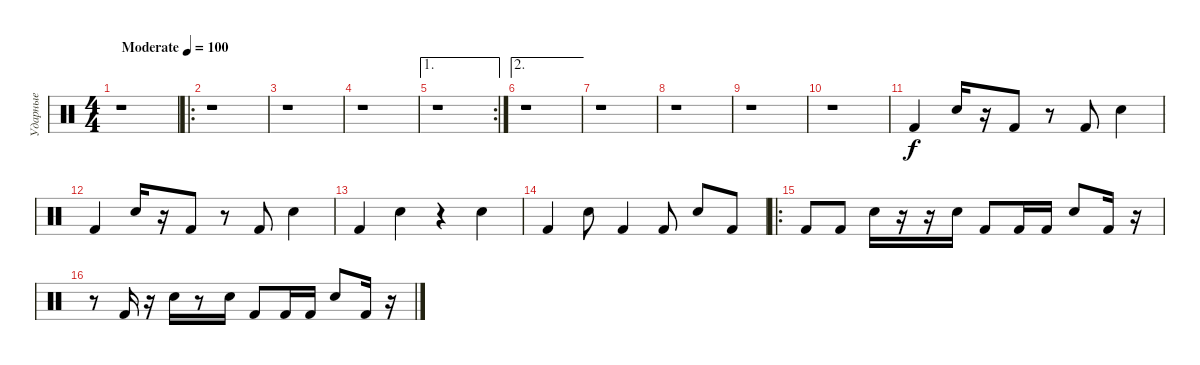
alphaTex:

\track ("Ударные" "Ударные") {instrument percussion}
\staff {score}
\articulation defaults
\ts (4 4)
\tempo (100 "Moderate")
\clef neutral
\ks c
r.1{dy f} |
\ro
r.1 |
r.1 |
r.1 |
\ae 1
\rc 2
r.1 |
\ae 2
r.1 |
r.1 |
r.1 |
r.1 |
r.1 |
"Kick (hit) 2".4 "Snare (hit) 2".16 r.16 "Kick (hit) 2".8 r.8 "Kick (hit) 2".8 "Snare (hit) 2".4 |
"Kick (hit) 2".4 "Snare (hit) 2".16 r.16 "Kick (hit) 2".8 r.8 "Kick (hit) 2".8 "Snare (hit) 2".4 |
"Kick (hit) 2".4 "Snare (hit) 2".4 r.4 "Snare (hit) 2".4 |
"Kick (hit) 2".4 "Snare (hit) 2".8 "Kick (hit) 2".4 "Kick (hit) 2".8 "Snare (hit) 2".8 "Kick (hit) 2".8 |
\ro "Kick (hit) 2".8 "Kick (hit) 2".8 "Snare (hit) 2".16
r.16 r.16 "Snare (hit) 2".16 "Kick (hit) 2".8 "Kick (hit) 2".16 "Kick (hit) 2".16 "Snare (hit) 2".8 "Kick (hit) 2".16 r.16 |
r.8 "Kick (hit) 2".16 r.16 "Snare (hit) 2".16 r.8 "Snare (hit) 2".16 "Kick (hit) 2".8 "Kick (hit) 2".16 "Kick (hit) 2".16 "Snare (hit) 2".8 "Kick (hit) 2".16 r.16
